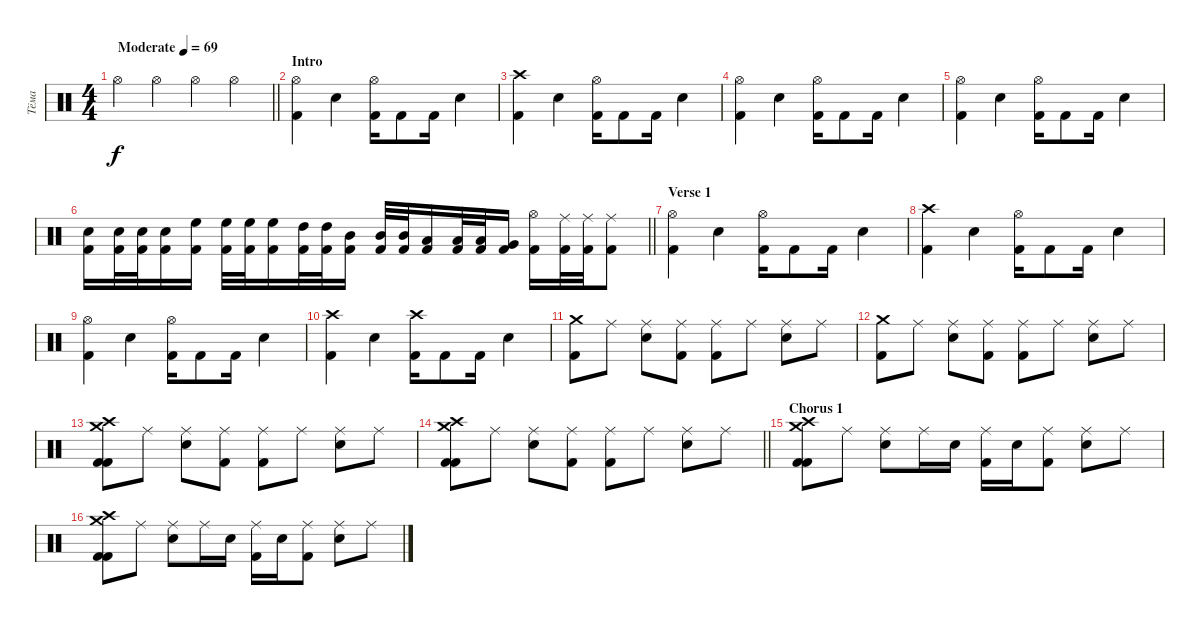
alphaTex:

\track ("Тёма" "Тёма") {instrument percussion}
\staff {score}
\articulation defaults
\ts (4 4)
\tempo (69 "Moderate")
\clef neutral
\barLineRight lightlight
\ks c "Hi-Hat (open)".4{dy f} "Hi-Hat (open)".4 "Hi-Hat (open)".4 "Hi-Hat (open)".4
|
\section ("" "Intro")
("Hi-Hat (open)" "Kick (hit) 2").4 "Snare (hit) 2".4 ("Hi-Hat (open)" "Kick (hit) 2").16 "Kick (hit) 2".8 "Kick (hit) 2".16 "Snare (hit) 2".4 |
("Crash high (hit)" "Kick (hit) 2").4 "Snare (hit) 2".4 ("Hi-Hat (open)" "Kick (hit) 2").16 "Kick (hit) 2".8 "Kick (hit) 2".16 "Snare (hit) 2".4 |
("Hi-Hat (open)" "Kick (hit) 2").4 "Snare (hit) 2".4 ("Hi-Hat (open)" "Kick (hit) 2").16 "Kick (hit) 2".8 "Kick (hit) 2".16 "Snare (hit) 2".4 |
("Hi-Hat (open)" "Kick (hit) 2").4 "Snare (hit) 2".4 ("Hi-Hat (open)" "Kick (hit) 2").16 "Kick (hit) 2".8 "Kick (hit) 2".16 "Snare (hit) 2".4 |
\barLineRight lightlight
("Snare (hit) 2" "Kick (hit) 2").16 ("Snare (hit) 2" "Kick (hit) 2").32 ("Snare (hit) 2" "Kick (hit) 2").32 ("Snare (hit) 2" "Kick (hit) 2").16 ("High Floor Tom (hit)" "Kick (hit) 2").16 ("High Floor Tom (hit)" "Kick (hit) 2").32 ("High Floor Tom (hit)" "Kick (hit) 2").32 ("High Floor Tom (hit)" "Kick (hit) 2").16 ("High Tom (hit)" "Kick (hit) 2").32 ("High Tom (hit)" "Kick (hit) 2").32 ("Mid Tom (hit)" "Kick (hit) 2").16 ("Mid Tom (hit)" "Kick (hit) 2").32 ("Mid Tom (hit)" "Kick (hit) 2").32 ("Low Tom (hit)" "Kick (hit) 2").16 ("Low Tom (hit)" "Kick (hit) 2").32 ("Low Tom (hit)" "Kick (hit) 2").32 ("Very Low Tom (hit)" "Kick (hit) 2").16 ("Hi-Hat (open)" "Kick (hit) 2").16 ("Ride (middle)" "Kick (hit) 2").32 ("Ride (middle)" "Kick (hit) 2").32 ("Ride (middle)" "Kick (hit) 2").8 |
\section ("" "Verse 1")
("Hi-Hat (open)" "Kick (hit) 2").4 "Snare (hit) 2".4 ("Hi-Hat (open)" "Kick (hit) 2").16 "Kick (hit) 2".8 "Kick (hit) 2".16 "Snare (hit) 2".4 |
("Crash high (hit)" "Kick (hit) 2").4 "Snare (hit) 2".4 ("Hi-Hat (open)" "Kick (hit) 2").16 "Kick (hit) 2".8 "Kick (hit) 2".16 "Snare (hit) 2".4 |
("Hi-Hat (open)" "Kick (hit) 2").4 "Snare (hit) 2".4 ("Hi-Hat (open)" "Kick (hit) 2").16 "Kick (hit) 2".8 "Kick (hit) 2".16 "Snare (hit) 2".4 |
("Crash high (hit)" "Kick (hit) 2").4 "Snare (hit) 2".4 ("Crash high (hit)" "Kick (hit) 2").16 "Kick (hit) 2".8 "Kick (hit) 2".16 "Snare (hit) 2".4 |
("Crash medium (hit)" "Kick (hit) 2").8 "Ride (middle)".8 ("Ride (middle)" "Snare (hit) 2").8 ("Ride (middle)" "Kick (hit) 2").8 ("Ride (middle)" "Kick (hit) 2").8 "Ride (middle)".8 ("Ride (middle)" "Snare (hit) 2").8 "Ride (middle)".8 |
("Crash medium (hit)" "Kick (hit) 2").8 "Ride (middle)".8 ("Ride (middle)" "Snare (hit) 2").8 ("Ride (middle)" "Kick (hit) 2").8 ("Ride (middle)" "Kick (hit) 2").8 "Ride (middle)".8 ("Ride (middle)" "Snare (hit) 2").8 "Ride (middle)".8 |
("Crash medium (hit)" "Crash high (hit)" "Kick (hit) 2" "Kick (hit) 2").8 "Ride (middle)".8 ("Ride (middle)" "Snare (hit) 2").8 ("Ride (middle)" "Kick (hit) 2").8 ("Ride (middle)" "Kick (hit) 2").8 "Ride (middle)".8 ("Ride (middle)" "Snare (hit) 2").8 "Ride (middle)".8 |
\barLineRight lightlight
("Crash medium (hit)" "Crash high (hit)" "Kick (hit) 2" "Kick (hit) 2").8 "Ride (middle)".8 ("Ride (middle)" "Snare (hit) 2").8 ("Ride (middle)" "Kick (hit) 2").8 ("Ride (middle)" "Kick (hit) 2").8 "Ride (middle)".8 ("Ride (middle)" "Snare (hit) 2").8 "Ride (middle)".8 |
\section ("" "Chorus 1")
("Crash medium (hit)" "Crash high (hit)" "Kick (hit) 2" "Kick (hit) 2").8 "Ride (middle)".8 ("Ride (middle)" "Snare (hit) 2").8 "Ride (middle)".16 "Snare (hit) 2".16 ("Ride (middle)" "Kick (hit) 2").16 "Snare (hit) 2".16 ("Ride (middle)" "Kick (hit) 2").8 ("Ride (middle)" "Snare (hit) 2").8 "Ride (middle)".8 |
("Crash medium (hit)" "Crash high (hit)" "Kick (hit) 2" "Kick (hit) 2").8 "Ride (middle)".8 ("Ride (middle)" "Snare (hit) 2").8 "Ride (middle)".16 "Snare (hit) 2".16 ("Ride (middle)" "Kick (hit) 2").16 "Snare (hit) 2".16 ("Ride (middle)" "Kick (hit) 2").8 ("Ride (middle)" "Snare (hit) 2").8 "Ride (middle)".8
